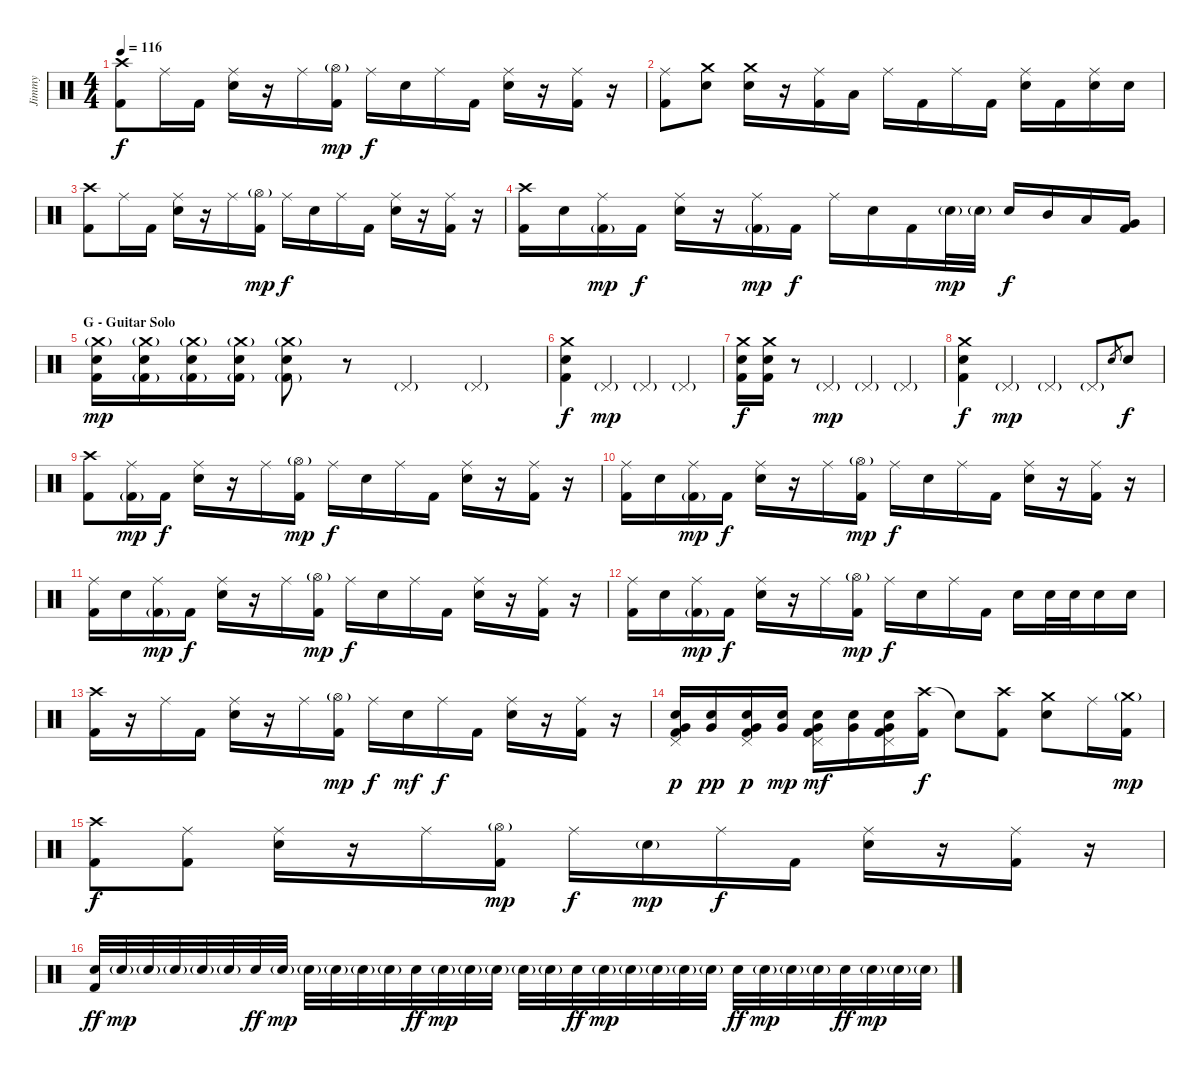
\track ("Jimmy" "Jimmy") {instrument percussion}
\staff {score}
\articulation defaults
\ts (4 4)
\tempo 116
\clef neutral
\ks c
("Crash high (hit)" "Kick (hit) 2").8{dy f} "Ride (middle)".16 "Kick (hit) 2".16 ("Ride (middle)" "Electric Snare (hit)").16 r.16 "Ride (middle)".16 ("Hi-Hat (open)"{g} "Kick (hit) 2").16{dy mp} "Ride (middle)".16{dy f} "Electric Snare (hit)".16 "Ride (middle)".16 "Kick (hit) 2".16 ("Ride (middle)" "Electric Snare (hit)").16 r.16 ("Ride (middle)" "Kick (hit) 2").16 r.16 |
("Ride (middle)" "Kick (hit) 2").8 ("Crash medium (hit)" "Electric Snare (hit)").8 ("Crash medium (hit)" "Electric Snare (hit)").16 r.16 ("Ride (middle)" "Kick (hit) 2").16 "Low Tom (hit)".16 "Ride (middle)".16 "Kick (hit) 2".16 "Ride (middle)".16 "Kick (hit) 2".16 ("Ride (middle)" "Electric Snare (hit)").16 "Kick (hit) 2".16 ("Ride (middle)" "Electric Snare (hit)").16 "Electric Snare (hit)".16 |
("Crash high (hit)" "Kick (hit) 2").8 "Ride (middle)".16 "Kick (hit) 2".16 ("Ride (middle)" "Electric Snare (hit)").16 r.16 "Ride (middle)".16 ("Hi-Hat (open)"{g} "Kick (hit) 2").16{dy mp} "Ride (middle)".16{dy f} "Electric Snare (hit)".16 "Ride (middle)".16 "Kick (hit) 2".16 ("Ride (middle)" "Electric Snare (hit)").16 r.16 ("Ride (middle)" "Kick (hit) 2").16 r.16 |
("Crash high (hit)" "Kick (hit) 2").16 "Electric Snare (hit)".16 ("Ride (middle)" "Kick (hit) 2"{g}).16{dy mp} "Kick (hit) 2".16{dy f} ("Ride (middle)" "Electric Snare (hit)").16 r.16 ("Ride (middle)" "Kick (hit) 2"{g}).16{dy mp} "Kick (hit) 2".16{dy f} "Ride (middle)".16 "Electric Snare (hit)".16 "Kick (hit) 2".16 "Electric Snare (hit)"{g}.32{dy mp} "Electric Snare (hit)"{g}.32 "Electric Snare (hit)".16{dy f} "Mid Tom (hit)".16 "Low Tom (hit)".16 ("Very Low Tom (hit)" "Kick (hit) 2").16 |
\section ("" "G - Guitar Solo")
("Crash medium (hit)"{g} "Electric Snare (hit)" "Kick (hit) 2").16{dy mp} ("Crash medium (hit)"{g} "Electric Snare (hit)" "Kick (hit) 2"{g}).16 ("Crash medium (hit)"{g} "Electric Snare (hit)" "Kick (hit) 2"{g}).16 ("Crash medium (hit)"{g} "Electric Snare (hit)" "Kick (hit) 2"{g}).16 ("Crash medium (hit)"{g} "Electric Snare (hit)" "Kick (hit) 2"{g}).8 r.8 "Pedal Hi-Hat (hit)"{g}.4 "Pedal Hi-Hat (hit)"{g}.4 |
("Crash medium (hit)" "Electric Snare (hit)" "Kick (hit) 2").4{dy f} "Pedal Hi-Hat (hit)"{g}.4{dy mp} "Pedal Hi-Hat (hit)"{g}.4 "Pedal Hi-Hat (hit)"{g}.4 |
("Crash medium (hit)" "Electric Snare (hit)" "Kick (hit) 2").16{dy f} ("Crash medium (hit)" "Electric Snare (hit)" "Kick (hit) 2").16 r.8 "Pedal Hi-Hat (hit)"{g}.4{dy mp} "Pedal Hi-Hat (hit)"{g}.4 "Pedal Hi-Hat (hit)"{g}.4 |
("Crash medium (hit)" "Electric Snare (hit)" "Kick (hit) 2").4{dy f} "Pedal Hi-Hat (hit)"{g}.4{dy mp} "Pedal Hi-Hat (hit)"{g}.4 "Pedal Hi-Hat (hit)"{g}.8 "Electric Snare (hit)".8{gr} "Electric Snare (hit)".8{dy f} |
("Crash high (hit)" "Kick (hit) 2").8 ("Ride (middle)" "Kick (hit) 2"{g}).16{dy mp} "Kick (hit) 2".16{dy f} ("Ride (middle)" "Electric Snare (hit)").16 r.16 "Ride (middle)".16 ("Hi-Hat (open)"{g} "Kick (hit) 2").16{dy mp} "Ride (middle)".16{dy f} "Electric Snare (hit)".16 "Ride (middle)".16 "Kick (hit) 2".16 ("Ride (middle)" "Electric Snare (hit)").16 r.16 ("Ride (middle)" "Kick (hit) 2").16 r.16 |
("Ride (middle)" "Kick (hit) 2").16 "Electric Snare (hit)".16 ("Ride (middle)" "Kick (hit) 2"{g}).16{dy mp} "Kick (hit) 2".16{dy f} ("Ride (middle)" "Electric Snare (hit)").16 r.16 "Ride (middle)".16 ("Hi-Hat (open)"{g} "Kick (hit) 2").16{dy mp} "Ride (middle)".16{dy f} "Electric Snare (hit)".16 "Ride (middle)".16 "Kick (hit) 2".16 ("Ride (middle)" "Electric Snare (hit)").16 r.16 ("Ride (middle)" "Kick (hit) 2").16 r.16 |
("Ride (middle)" "Kick (hit) 2").16 "Electric Snare (hit)".16 ("Ride (middle)" "Kick (hit) 2"{g}).16{dy mp} "Kick (hit) 2".16{dy f} ("Ride (middle)" "Electric Snare (hit)").16 r.16 "Ride (middle)".16 ("Hi-Hat (open)"{g} "Kick (hit) 2").16{dy mp} "Ride (middle)".16{dy f} "Electric Snare (hit)".16 "Ride (middle)".16 "Kick (hit) 2".16 ("Ride (middle)" "Electric Snare (hit)").16 r.16 ("Ride (middle)" "Kick (hit) 2").16 r.16 |
("Ride (middle)" "Kick (hit) 2").16 "Electric Snare (hit)".16 ("Ride (middle)" "Kick (hit) 2"{g}).16{dy mp} "Kick (hit) 2".16{dy f} ("Ride (middle)" "Electric Snare (hit)").16 r.16 "Ride (middle)".16 ("Hi-Hat (open)"{g} "Kick (hit) 2").16{dy mp} "Ride (middle)".16{dy f} "Electric Snare (hit)".16 "Ride (middle)".16 "Kick (hit) 2".16 "Electric Snare (hit)".16 "Electric Snare (hit)".32 "Electric Snare (hit)".32 "Electric Snare (hit)".16 "Electric Snare (hit)".16 |
("Crash high (hit)" "Kick (hit) 2").16 r.16 "Ride (middle)".16 "Kick (hit) 2".16 ("Ride (middle)" "Electric Snare (hit)").16 r.16 "Ride (middle)".16 ("Hi-Hat (open)"{g} "Kick (hit) 2").16{dy mp} "Ride (middle)".16{dy f} "Electric Snare (hit)".16{dy mf} "Ride (middle)".16{dy f} "Kick (hit) 2".16 ("Ride (middle)" "Electric Snare (hit)").16 r.16 ("Ride (middle)" "Kick (hit) 2").16 r.16 |
("Pedal Hi-Hat (hit)" "Electric Snare (hit)" "Very Low Tom (hit)" "Kick (hit) 2").16{dy p} ("Electric Snare (hit)" "Very Low Tom (hit)").16{dy pp} ("Pedal Hi-Hat (hit)" "Electric Snare (hit)" "Very Low Tom (hit)" "Kick (hit) 2").16{dy p} ("Electric Snare (hit)" "Very Low Tom (hit)").16{dy mp} ("Pedal Hi-Hat (hit)" "Electric Snare (hit)" "Very Low Tom (hit)" "Kick (hit) 2").16{dy mf} ("Electric Snare (hit)" "Very Low Tom (hit)").16 ("Pedal Hi-Hat (hit)" "Electric Snare (hit)" "Very Low Tom (hit)" "Kick (hit) 2").16 ("Crash high (hit)" "Kick (hit) 2").16{dy f} "Snare (hit)"{t}.8 ("Crash high (hit)" "Kick (hit) 2").8 ("Crash medium (hit)" "Electric Snare (hit)").8 "Ride (middle)".16 ("Crash medium (hit)"{g} "Kick (hit) 2").16{dy mp} |
("Crash high (hit)" "Kick (hit) 2").8{dy f} ("Ride (middle)" "Kick (hit) 2").8 ("Ride (middle)" "Electric Snare (hit)").16 r.16 "Ride (middle)".16 ("Hi-Hat (open)"{g} "Kick (hit) 2").16{dy mp} "Ride (middle)".16{dy f} "Electric Snare (hit)"{g}.16{dy mp} "Ride (middle)".16{dy f} "Kick (hit) 2".16 ("Ride (middle)" "Electric Snare (hit)").16 r.16 ("Ride (middle)" "Kick (hit) 2").16 r.16 |
("Electric Snare (hit)" "Kick (hit) 2").32{dy ff} "Electric Snare (hit)"{g}.32{dy mp} "Electric Snare (hit)"{g}.32 "Electric Snare (hit)"{g}.32 "Electric Snare (hit)"{g}.32 "Electric Snare (hit)"{g}.32 "Electric Snare (hit)".32{dy ff} "Electric Snare (hit)"{g}.32{dy mp} "Electric Snare (hit)"{g}.32 "Electric Snare (hit)"{g}.32 "Electric Snare (hit)"{g}.32 "Electric Snare (hit)"{g}.32 "Electric Snare (hit)".32{dy ff} "Electric Snare (hit)"{g}.32{dy mp} "Electric Snare (hit)"{g}.32 "Electric Snare (hit)"{g}.32 "Electric Snare (hit)"{g}.32 "Electric Snare (hit)"{g}.32 "Electric Snare (hit)".32{dy ff} "Electric Snare (hit)"{g}.32{dy mp} "Electric Snare (hit)"{g}.32 "Electric Snare (hit)"{g}.32 "Electric Snare (hit)"{g}.32 "Electric Snare (hit)"{g}.32 "Electric Snare (hit)".32{dy ff} "Electric Snare (hit)"{g}.32{dy mp} "Electric Snare (hit)"{g}.32 "Electric Snare (hit)"{g}.32 "Electric Snare (hit)".32{dy ff} "Electric Snare (hit)"{g}.32{dy mp} "Electric Snare (hit)"{g}.32 "Electric Snare (hit)"{g}.32
